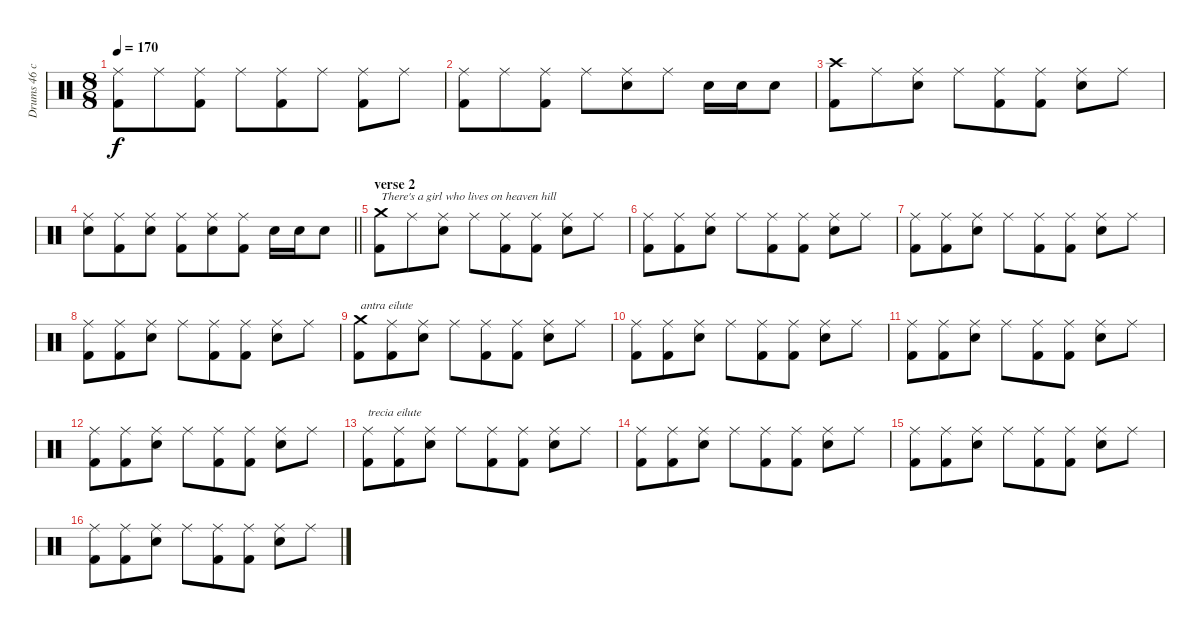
\track ("Drums 46 chorus" "Drums 46 c") {mute instrument percussion}
\staff {score}
\articulation defaults
\ts (8 8)
\tempo 170
\clef neutral
\ks c
("Ride (middle)" "Kick (hit) 2").8{dy f} "Ride (middle)".8 ("Ride (middle)" "Kick (hit) 2").8 "Ride (middle)".8 ("Ride (middle)" "Kick (hit) 2").8 "Ride (middle)".8 ("Ride (middle)" "Kick (hit) 2").8 "Ride (middle)".8 |
("Ride (middle)" "Kick (hit) 2").8 "Ride (middle)".8 ("Ride (middle)" "Kick (hit) 2").8 "Ride (middle)".8 ("Ride (middle)" "Snare (hit) 2").8 "Ride (middle)".8 "Snare (hit) 2".16 "Snare (hit) 2".16 "Snare (hit) 2".8 |
("Crash high (hit)" "Kick (hit) 2").8 "Ride (middle)".8 ("Ride (middle)" "Snare (hit) 2").8 "Ride (middle)".8 ("Ride (middle)" "Kick (hit) 2").8 ("Ride (middle)" "Kick (hit) 2").8 ("Ride (middle)" "Snare (hit) 2").8 "Ride (middle)".8 |
\barLineRight lightlight
("Ride (middle)" "Snare (hit) 2").8 ("Ride (middle)" "Kick (hit) 2").8 ("Ride (middle)" "Snare (hit) 2").8 ("Ride (middle)" "Kick (hit) 2").8 ("Ride (middle)" "Snare (hit) 2").8 ("Ride (middle)" "Kick (hit) 2").8 "Snare (hit) 2".16 "Snare (hit) 2".16 "Snare (hit) 2".8 |
\section ("" "verse 2")
("Crash medium (hit)" "Kick (hit) 2").8{txt "There's a girl who lives on heaven hill"} "Ride (middle)".8 ("Ride (middle)" "Snare (hit) 2").8 "Ride (middle)".8 ("Ride (middle)" "Kick (hit) 2").8 ("Ride (middle)" "Kick (hit) 2").8 ("Ride (middle)" "Snare (hit) 2").8 "Ride (middle)".8 |
("Ride (middle)" "Kick (hit) 2").8 ("Ride (middle)" "Kick (hit) 2").8 ("Ride (middle)" "Snare (hit) 2").8 "Ride (middle)".8 ("Ride (middle)" "Kick (hit) 2").8 ("Ride (middle)" "Kick (hit) 2").8 ("Ride (middle)" "Snare (hit) 2").8 "Ride (middle)".8 |
("Ride (middle)" "Kick (hit) 2").8 ("Ride (middle)" "Kick (hit) 2").8 ("Ride (middle)" "Snare (hit) 2").8 "Ride (middle)".8 ("Ride (middle)" "Kick (hit) 2").8 ("Ride (middle)" "Kick (hit) 2").8 ("Ride (middle)" "Snare (hit) 2").8 "Ride (middle)".8 |
("Ride (middle)" "Kick (hit) 2").8 ("Ride (middle)" "Kick (hit) 2").8 ("Ride (middle)" "Snare (hit) 2").8 "Ride (middle)".8 ("Ride (middle)" "Kick (hit) 2").8 ("Ride (middle)" "Kick (hit) 2").8 ("Ride (middle)" "Snare (hit) 2").8 "Ride (middle)".8 |
("Crash medium (hit)" "Kick (hit) 2").8{txt "antra eilute"} ("Ride (middle)" "Kick (hit) 2").8 ("Ride (middle)" "Snare (hit) 2").8 "Ride (middle)".8 ("Ride (middle)" "Kick (hit) 2").8 ("Ride (middle)" "Kick (hit) 2").8 ("Ride (middle)" "Snare (hit) 2").8 "Ride (middle)".8 |
("Ride (middle)" "Kick (hit) 2").8 ("Ride (middle)" "Kick (hit) 2").8 ("Ride (middle)" "Snare (hit) 2").8 "Ride (middle)".8 ("Ride (middle)" "Kick (hit) 2").8 ("Ride (middle)" "Kick (hit) 2").8 ("Ride (middle)" "Snare (hit) 2").8 "Ride (middle)".8 |
("Ride (middle)" "Kick (hit) 2").8 ("Ride (middle)" "Kick (hit) 2").8 ("Ride (middle)" "Snare (hit) 2").8 "Ride (middle)".8 ("Ride (middle)" "Kick (hit) 2").8 ("Ride (middle)" "Kick (hit) 2").8 ("Ride (middle)" "Snare (hit) 2").8 "Ride (middle)".8 |
("Ride (middle)" "Kick (hit) 2").8 ("Ride (middle)" "Kick (hit) 2").8 ("Ride (middle)" "Snare (hit) 2").8 "Ride (middle)".8 ("Ride (middle)" "Kick (hit) 2").8 ("Ride (middle)" "Kick (hit) 2").8 ("Ride (middle)" "Snare (hit) 2").8 "Ride (middle)".8 |
("Ride (middle)" "Kick (hit) 2").8{txt "trecia eilute"} ("Ride (middle)" "Kick (hit) 2").8 ("Ride (middle)" "Snare (hit) 2").8 "Ride (middle)".8 ("Ride (middle)" "Kick (hit) 2").8 ("Ride (middle)" "Kick (hit) 2").8 ("Ride (middle)" "Snare (hit) 2").8 "Ride (middle)".8 |
("Ride (middle)" "Kick (hit) 2").8 ("Ride (middle)" "Kick (hit) 2").8 ("Ride (middle)" "Snare (hit) 2").8 "Ride (middle)".8 ("Ride (middle)" "Kick (hit) 2").8 ("Ride (middle)" "Kick (hit) 2").8 ("Ride (middle)" "Snare (hit) 2").8 "Ride (middle)".8 |
("Ride (middle)" "Kick (hit) 2").8 ("Ride (middle)" "Kick (hit) 2").8 ("Ride (middle)" "Snare (hit) 2").8 "Ride (middle)".8 ("Ride (middle)" "Kick (hit) 2").8 ("Ride (middle)" "Kick (hit) 2").8 ("Ride (middle)" "Snare (hit) 2").8 "Ride (middle)".8 |
("Ride (middle)" "Kick (hit) 2").8 ("Ride (middle)" "Kick (hit) 2").8 ("Ride (middle)" "Snare (hit) 2").8 "Ride (middle)".8 ("Ride (middle)" "Kick (hit) 2").8 ("Ride (middle)" "Kick (hit) 2").8 ("Ride (middle)" "Snare (hit) 2").8 "Ride (middle)".8
